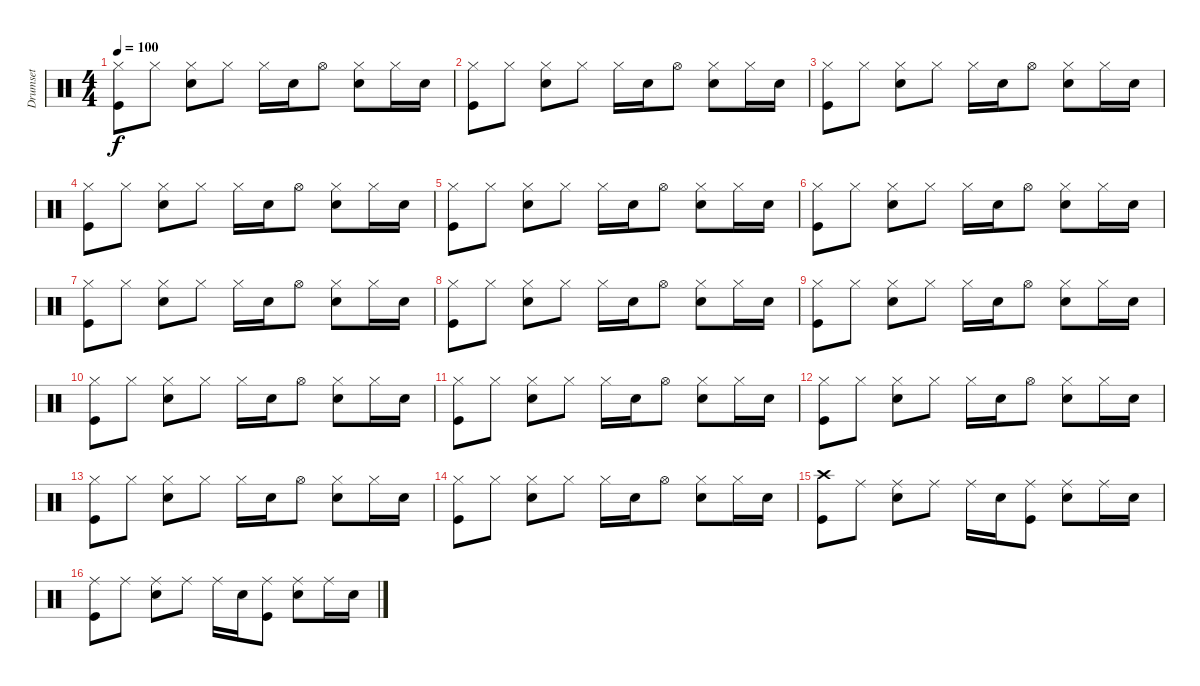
\track ("Drumset" "Drumset") {instrument percussion}
\staff {score}
\articulation defaults
\ts (4 4)
\tempo 100
\clef neutral
\ks c
("Hi-Hat (closed)" "Kick (hit)").8{dy f} "Hi-Hat (closed)".8 ("Snare (hit) 2" "Hi-Hat (closed)").8 "Hi-Hat (closed)".8 "Hi-Hat (closed)".16 "Snare (hit) 2".16 "Hi-Hat (open)".8 ("Snare (hit) 2" "Hi-Hat (closed)").8 "Hi-Hat (closed)".16 "Snare (hit) 2".16 |
("Hi-Hat (closed)" "Kick (hit)").8 "Hi-Hat (closed)".8 ("Snare (hit) 2" "Hi-Hat (closed)").8 "Hi-Hat (closed)".8 "Hi-Hat (closed)".16 "Snare (hit) 2".16 "Hi-Hat (open)".8 ("Snare (hit) 2" "Hi-Hat (closed)").8 "Hi-Hat (closed)".16 "Snare (hit) 2".16 |
("Hi-Hat (closed)" "Kick (hit)").8 "Hi-Hat (closed)".8 ("Snare (hit) 2" "Hi-Hat (closed)").8 "Hi-Hat (closed)".8 "Hi-Hat (closed)".16 "Snare (hit) 2".16 "Hi-Hat (open)".8 ("Snare (hit) 2" "Hi-Hat (closed)").8 "Hi-Hat (closed)".16 "Snare (hit) 2".16 |
("Hi-Hat (closed)" "Kick (hit)").8 "Hi-Hat (closed)".8 ("Snare (hit) 2" "Hi-Hat (closed)").8 "Hi-Hat (closed)".8 "Hi-Hat (closed)".16 "Snare (hit) 2".16 "Hi-Hat (open)".8 ("Snare (hit) 2" "Hi-Hat (closed)").8 "Hi-Hat (closed)".16 "Snare (hit) 2".16 |
("Hi-Hat (closed)" "Kick (hit)").8 "Hi-Hat (closed)".8 ("Snare (hit) 2" "Hi-Hat (closed)").8 "Hi-Hat (closed)".8 "Hi-Hat (closed)".16 "Snare (hit) 2".16 "Hi-Hat (open)".8 ("Snare (hit) 2" "Hi-Hat (closed)").8 "Hi-Hat (closed)".16 "Snare (hit) 2".16 |
("Hi-Hat (closed)" "Kick (hit)").8 "Hi-Hat (closed)".8 ("Snare (hit) 2" "Hi-Hat (closed)").8 "Hi-Hat (closed)".8 "Hi-Hat (closed)".16 "Snare (hit) 2".16 "Hi-Hat (open)".8 ("Snare (hit) 2" "Hi-Hat (closed)").8 "Hi-Hat (closed)".16 "Snare (hit) 2".16 |
("Hi-Hat (closed)" "Kick (hit)").8 "Hi-Hat (closed)".8 ("Snare (hit) 2" "Hi-Hat (closed)").8 "Hi-Hat (closed)".8 "Hi-Hat (closed)".16 "Snare (hit) 2".16 "Hi-Hat (open)".8 ("Snare (hit) 2" "Hi-Hat (closed)").8 "Hi-Hat (closed)".16 "Snare (hit) 2".16 |
("Hi-Hat (closed)" "Kick (hit)").8 "Hi-Hat (closed)".8 ("Snare (hit) 2" "Hi-Hat (closed)").8 "Hi-Hat (closed)".8 "Hi-Hat (closed)".16 "Snare (hit) 2".16 "Hi-Hat (open)".8 ("Snare (hit) 2" "Hi-Hat (closed)").8 "Hi-Hat (closed)".16 "Snare (hit) 2".16 |
("Hi-Hat (closed)" "Kick (hit)").8 "Hi-Hat (closed)".8 ("Snare (hit) 2" "Hi-Hat (closed)").8 "Hi-Hat (closed)".8 "Hi-Hat (closed)".16 "Snare (hit) 2".16 "Hi-Hat (open)".8 ("Snare (hit) 2" "Hi-Hat (closed)").8 "Hi-Hat (closed)".16 "Snare (hit) 2".16 |
("Hi-Hat (closed)" "Kick (hit)").8 "Hi-Hat (closed)".8 ("Snare (hit) 2" "Hi-Hat (closed)").8 "Hi-Hat (closed)".8 "Hi-Hat (closed)".16 "Snare (hit) 2".16 "Hi-Hat (open)".8 ("Snare (hit) 2" "Hi-Hat (closed)").8 "Hi-Hat (closed)".16 "Snare (hit) 2".16 |
("Hi-Hat (closed)" "Kick (hit)").8 "Hi-Hat (closed)".8 ("Snare (hit) 2" "Hi-Hat (closed)").8 "Hi-Hat (closed)".8 "Hi-Hat (closed)".16 "Snare (hit) 2".16 "Hi-Hat (open)".8 ("Snare (hit) 2" "Hi-Hat (closed)").8 "Hi-Hat (closed)".16 "Snare (hit) 2".16 |
("Hi-Hat (closed)" "Kick (hit)").8 "Hi-Hat (closed)".8 ("Snare (hit) 2" "Hi-Hat (closed)").8 "Hi-Hat (closed)".8 "Hi-Hat (closed)".16 "Snare (hit) 2".16 "Hi-Hat (open)".8 ("Snare (hit) 2" "Hi-Hat (closed)").8 "Hi-Hat (closed)".16 "Snare (hit) 2".16 |
("Hi-Hat (closed)" "Kick (hit)").8 "Hi-Hat (closed)".8 ("Snare (hit) 2" "Hi-Hat (closed)").8 "Hi-Hat (closed)".8 "Hi-Hat (closed)".16 "Snare (hit) 2".16 "Hi-Hat (open)".8 ("Snare (hit) 2" "Hi-Hat (closed)").8 "Hi-Hat (closed)".16 "Snare (hit) 2".16 |
("Hi-Hat (closed)" "Kick (hit)").8 "Hi-Hat (closed)".8 ("Snare (hit) 2" "Hi-Hat (closed)").8 "Hi-Hat (closed)".8 "Hi-Hat (closed)".16 "Snare (hit) 2".16 "Hi-Hat (open)".8 ("Snare (hit) 2" "Hi-Hat (closed)").8 "Hi-Hat (closed)".16 "Snare (hit) 2".16 |
("Crash high (hit)" "Kick (hit)").8 "Ride (middle)".8 ("Ride (middle)" "Snare (hit) 2").8 "Ride (middle)".8 "Ride (middle)".16 "Snare (hit) 2".16 ("Ride (middle)" "Kick (hit)").8 ("Ride (middle)" "Snare (hit) 2").8 "Ride (middle)".16 "Snare (hit) 2".16 |
("Ride (middle)" "Kick (hit)").8 "Ride (middle)".8 ("Snare (hit) 2" "Ride (middle)").8 "Ride (middle)".8 "Ride (middle)".16 "Snare (hit) 2".16 ("Ride (middle)" "Kick (hit)").8 ("Ride (middle)" "Snare (hit) 2").8 "Ride (middle)".16 "Snare (hit) 2".16
